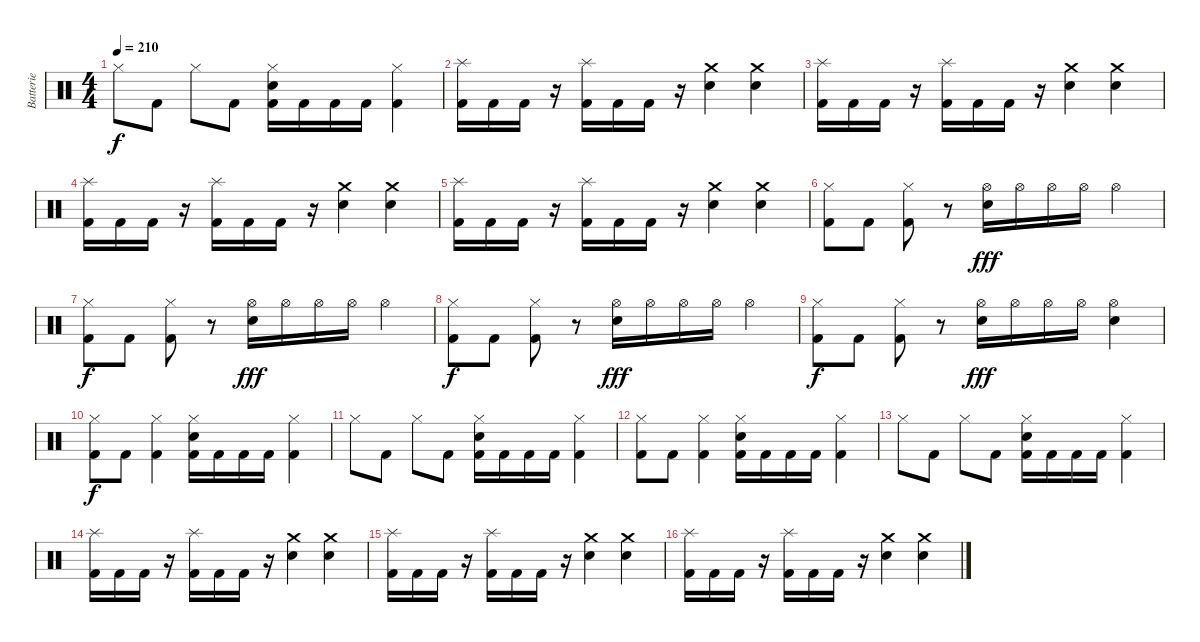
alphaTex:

\track ("Batterie" "Batterie") {instrument percussion}
\staff {score}
\articulation defaults
\ts (4 4)
\tempo 210
\clef neutral
\ks c "Hi-Hat (closed)".8{dy f} "Kick (hit) 2".8 "Hi-Hat (closed)".8 "Kick (hit) 2".8
("Hi-Hat (closed)" "Electric Snare (hit)" "Kick (hit) 2").16 "Kick (hit) 2".16 "Kick (hit) 2".16 "Kick (hit) 2".16 ("Hi-Hat (closed)" "Kick (hit) 2").4 |
("Splash (hit)" "Kick (hit) 2").16 "Kick (hit) 2".16 "Kick (hit) 2".16 r.16 ("Splash (hit)" "Kick (hit) 2").16 "Kick (hit) 2".16 "Kick (hit) 2".16 r.16 ("Crash medium (hit)" "Electric Snare (hit)").4 ("Crash medium (hit)" "Electric Snare (hit)").4 |
("Splash (hit)" "Kick (hit) 2").16 "Kick (hit) 2".16 "Kick (hit) 2".16 r.16 ("Splash (hit)" "Kick (hit) 2").16 "Kick (hit) 2".16 "Kick (hit) 2".16 r.16 ("Crash medium (hit)" "Electric Snare (hit)").4 ("Crash medium (hit)" "Electric Snare (hit)").4 |
("Splash (hit)" "Kick (hit) 2").16 "Kick (hit) 2".16 "Kick (hit) 2".16 r.16 ("Splash (hit)" "Kick (hit) 2").16 "Kick (hit) 2".16 "Kick (hit) 2".16 r.16 ("Crash medium (hit)" "Electric Snare (hit)").4 ("Crash medium (hit)" "Electric Snare (hit)").4 |
("Splash (hit)" "Kick (hit) 2").16 "Kick (hit) 2".16 "Kick (hit) 2".16 r.16 ("Splash (hit)" "Kick (hit) 2").16 "Kick (hit) 2".16 "Kick (hit) 2".16 r.16 ("Crash medium (hit)" "Electric Snare (hit)").4 ("Crash medium (hit)" "Electric Snare (hit)").4 |
("Hi-Hat (closed)" "Kick (hit) 2").8 "Kick (hit) 2".8 ("Hi-Hat (closed)" "Kick (hit) 2").8 r.8 ("Hi-Hat (open)" "Electric Snare (hit)").16{dy fff} "Hi-Hat (open)".16 "Hi-Hat (open)".16 "Hi-Hat (open)".16 "Hi-Hat (open)".4 |
("Hi-Hat (closed)" "Kick (hit) 2").8{dy f} "Kick (hit) 2".8 ("Hi-Hat (closed)" "Kick (hit) 2").8 r.8 ("Hi-Hat (open)" "Electric Snare (hit)").16{dy fff} "Hi-Hat (open)".16 "Hi-Hat (open)".16 "Hi-Hat (open)".16 "Hi-Hat (open)".4 |
("Hi-Hat (closed)" "Kick (hit) 2").8{dy f} "Kick (hit) 2".8 ("Hi-Hat (closed)" "Kick (hit) 2").8 r.8 ("Hi-Hat (open)" "Electric Snare (hit)").16{dy fff} "Hi-Hat (open)".16 "Hi-Hat (open)".16 "Hi-Hat (open)".16 "Hi-Hat (open)".4 |
("Hi-Hat (closed)" "Kick (hit) 2").8{dy f} "Kick (hit) 2".8 ("Hi-Hat (closed)" "Kick (hit) 2").8 r.8 ("Hi-Hat (open)" "Electric Snare (hit)").16{dy fff} "Hi-Hat (open)".16 "Hi-Hat (open)".16 "Hi-Hat (open)".16 ("Hi-Hat (open)" "Electric Snare (hit)").4 |
("Hi-Hat (closed)" "Kick (hit) 2").8{dy f} "Kick (hit) 2".8 ("Hi-Hat (closed)" "Kick (hit) 2").4 ("Hi-Hat (closed)" "Electric Snare (hit)" "Kick (hit) 2").16 "Kick (hit) 2".16 "Kick (hit) 2".16 "Kick (hit) 2".16 ("Hi-Hat (closed)" "Kick (hit) 2").4 |
"Hi-Hat (closed)".8 "Kick (hit) 2".8 "Hi-Hat (closed)".8 "Kick (hit) 2".8 ("Hi-Hat (closed)" "Electric Snare (hit)" "Kick (hit) 2").16 "Kick (hit) 2".16 "Kick (hit) 2".16 "Kick (hit) 2".16 ("Hi-Hat (closed)" "Kick (hit) 2").4 |
("Hi-Hat (closed)" "Kick (hit) 2").8 "Kick (hit) 2".8 ("Hi-Hat (closed)" "Kick (hit) 2").4 ("Hi-Hat (closed)" "Electric Snare (hit)" "Kick (hit) 2").16 "Kick (hit) 2".16 "Kick (hit) 2".16 "Kick (hit) 2".16 ("Hi-Hat (closed)" "Kick (hit) 2").4 |
"Hi-Hat (closed)".8 "Kick (hit) 2".8 "Hi-Hat (closed)".8 "Kick (hit) 2".8 ("Hi-Hat (closed)" "Electric Snare (hit)" "Kick (hit) 2").16 "Kick (hit) 2".16 "Kick (hit) 2".16 "Kick (hit) 2".16 ("Hi-Hat (closed)" "Kick (hit) 2").4 |
("Splash (hit)" "Kick (hit) 2").16 "Kick (hit) 2".16 "Kick (hit) 2".16 r.16 ("Splash (hit)" "Kick (hit) 2").16 "Kick (hit) 2".16 "Kick (hit) 2".16 r.16 ("Crash medium (hit)" "Electric Snare (hit)").4 ("Crash medium (hit)" "Electric Snare (hit)").4 |
("Splash (hit)" "Kick (hit) 2").16 "Kick (hit) 2".16 "Kick (hit) 2".16 r.16 ("Splash (hit)" "Kick (hit) 2").16 "Kick (hit) 2".16 "Kick (hit) 2".16 r.16 ("Crash medium (hit)" "Electric Snare (hit)").4 ("Crash medium (hit)" "Electric Snare (hit)").4 |
("Splash (hit)" "Kick (hit) 2").16 "Kick (hit) 2".16 "Kick (hit) 2".16 r.16 ("Splash (hit)" "Kick (hit) 2").16 "Kick (hit) 2".16 "Kick (hit) 2".16 r.16 ("Crash medium (hit)" "Electric Snare (hit)").4 ("Crash medium (hit)" "Electric Snare (hit)").4
